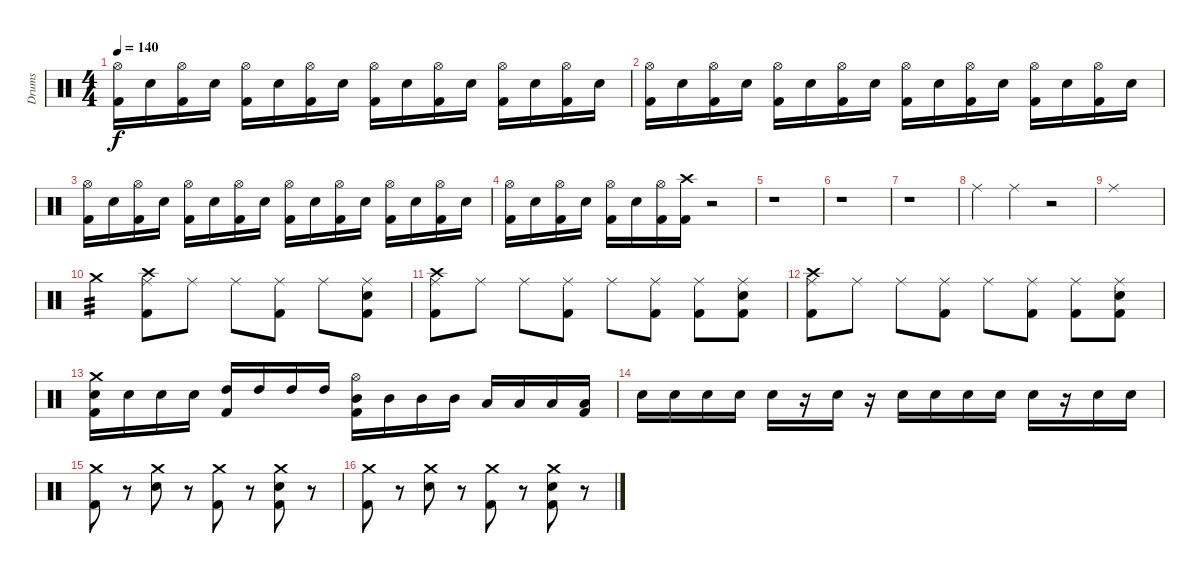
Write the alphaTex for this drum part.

\track ("Drums" "Drums") {instrument percussion}
\staff {score}
\articulation defaults
\ts (4 4)
\tempo 140
\clef neutral
\ks c
("Hi-Hat (open)" "Kick (hit) 2").16{dy f} "Electric Snare (hit)".16 ("Hi-Hat (open)" "Kick (hit) 2").16 "Electric Snare (hit)".16 ("Hi-Hat (open)" "Kick (hit) 2").16 "Electric Snare (hit)".16 ("Hi-Hat (open)" "Kick (hit) 2").16 "Electric Snare (hit)".16 ("Hi-Hat (open)" "Kick (hit) 2").16 "Electric Snare (hit)".16 ("Hi-Hat (open)" "Kick (hit) 2").16 "Electric Snare (hit)".16 ("Hi-Hat (open)" "Kick (hit) 2").16 "Electric Snare (hit)".16 ("Hi-Hat (open)" "Kick (hit) 2").16 "Electric Snare (hit)".16 |
("Hi-Hat (open)" "Kick (hit) 2").16 "Electric Snare (hit)".16 ("Hi-Hat (open)" "Kick (hit) 2").16 "Electric Snare (hit)".16 ("Hi-Hat (open)" "Kick (hit) 2").16 "Electric Snare (hit)".16 ("Hi-Hat (open)" "Kick (hit) 2").16 "Electric Snare (hit)".16 ("Hi-Hat (open)" "Kick (hit) 2").16 "Electric Snare (hit)".16 ("Hi-Hat (open)" "Kick (hit) 2").16 "Electric Snare (hit)".16 ("Hi-Hat (open)" "Kick (hit) 2").16 "Electric Snare (hit)".16 ("Hi-Hat (open)" "Kick (hit) 2").16 "Electric Snare (hit)".16 |
("Hi-Hat (open)" "Kick (hit) 2").16 "Electric Snare (hit)".16 ("Hi-Hat (open)" "Kick (hit) 2").16 "Electric Snare (hit)".16 ("Hi-Hat (open)" "Kick (hit) 2").16 "Electric Snare (hit)".16 ("Hi-Hat (open)" "Kick (hit) 2").16 "Electric Snare (hit)".16 ("Hi-Hat (open)" "Kick (hit) 2").16 "Electric Snare (hit)".16 ("Hi-Hat (open)" "Kick (hit) 2").16 "Electric Snare (hit)".16 ("Hi-Hat (open)" "Kick (hit) 2").16 "Electric Snare (hit)".16 ("Hi-Hat (open)" "Kick (hit) 2").16 "Electric Snare (hit)".16 |
("Hi-Hat (open)" "Kick (hit) 2").16 "Electric Snare (hit)".16 ("Hi-Hat (open)" "Kick (hit) 2").16 "Electric Snare (hit)".16 ("Hi-Hat (open)" "Kick (hit) 2").16 "Electric Snare (hit)".16 ("Hi-Hat (open)" "Kick (hit) 2").16 ("Crash high (hit)" "Kick (hit) 2").16 r.2 |
r.1 |
r.1 |
r.1 |
"Ride (middle)".4 "Ride (middle)".4 r.2 |
"Ride (middle)".1 |
"Crash medium (hit)".4{tp 3} ("Ride (middle)" "Crash high (hit)" "Kick (hit) 2").8 "Ride (middle)".8 "Ride (middle)".8 ("Ride (middle)" "Kick (hit) 2").8 "Ride (middle)".8 ("Ride (middle)" "Electric Snare (hit)" "Kick (hit) 2").8 |
("Ride (middle)" "Crash high (hit)" "Kick (hit) 2").8 "Ride (middle)".8 "Ride (middle)".8 ("Ride (middle)" "Kick (hit) 2").8 "Ride (middle)".8 ("Ride (middle)" "Kick (hit) 2").8 ("Ride (middle)" "Kick (hit) 2").8 ("Ride (middle)" "Electric Snare (hit)" "Kick (hit) 2").8 |
("Ride (middle)" "Crash high (hit)" "Kick (hit) 2").8 "Ride (middle)".8 "Ride (middle)".8 ("Ride (middle)" "Kick (hit) 2").8 "Ride (middle)".8 ("Ride (middle)" "Kick (hit) 2").8 ("Ride (middle)" "Kick (hit) 2").8 ("Ride (middle)" "Electric Snare (hit)" "Kick (hit) 2").8 |
("Crash medium (hit)" "Electric Snare (hit)" "Kick (hit) 2").16 "Electric Snare (hit)".16 "Electric Snare (hit)".16 "Electric Snare (hit)".16 ("High Tom (hit)" "Kick (hit) 2").16 "High Tom (hit)".16 "High Tom (hit)".16 "High Tom (hit)".16 ("Hi-Hat (open)" "Mid Tom (hit)" "Kick (hit) 2").16 "Mid Tom (hit)".16 "Mid Tom (hit)".16 "Mid Tom (hit)".16 "Low Tom (hit)".16 "Low Tom (hit)".16 "Low Tom (hit)".16 ("Low Tom (hit)" "Kick (hit) 2").16 |
"Electric Snare (hit)".16 "Electric Snare (hit)".16 "Electric Snare (hit)".16 "Electric Snare (hit)".16 "Electric Snare (hit)".16 r.16 "Electric Snare (hit)".16 r.16 "Electric Snare (hit)".16 "Electric Snare (hit)".16 "Electric Snare (hit)".16 "Electric Snare (hit)".16 "Electric Snare (hit)".16 r.16 "Electric Snare (hit)".16 "Electric Snare (hit)".16 |
("Crash medium (hit)" "Kick (hit) 2").8 r.8 ("Crash medium (hit)" "Electric Snare (hit)").8 r.8 ("Crash medium (hit)" "Kick (hit) 2").8 r.8 ("Crash medium (hit)" "Electric Snare (hit)" "Kick (hit) 2").8 r.8 |
("Crash medium (hit)" "Kick (hit) 2").8 r.8 ("Crash medium (hit)" "Electric Snare (hit)").8 r.8 ("Crash medium (hit)" "Kick (hit) 2").8 r.8 ("Crash medium (hit)" "Electric Snare (hit)" "Kick (hit) 2").8 r.8
